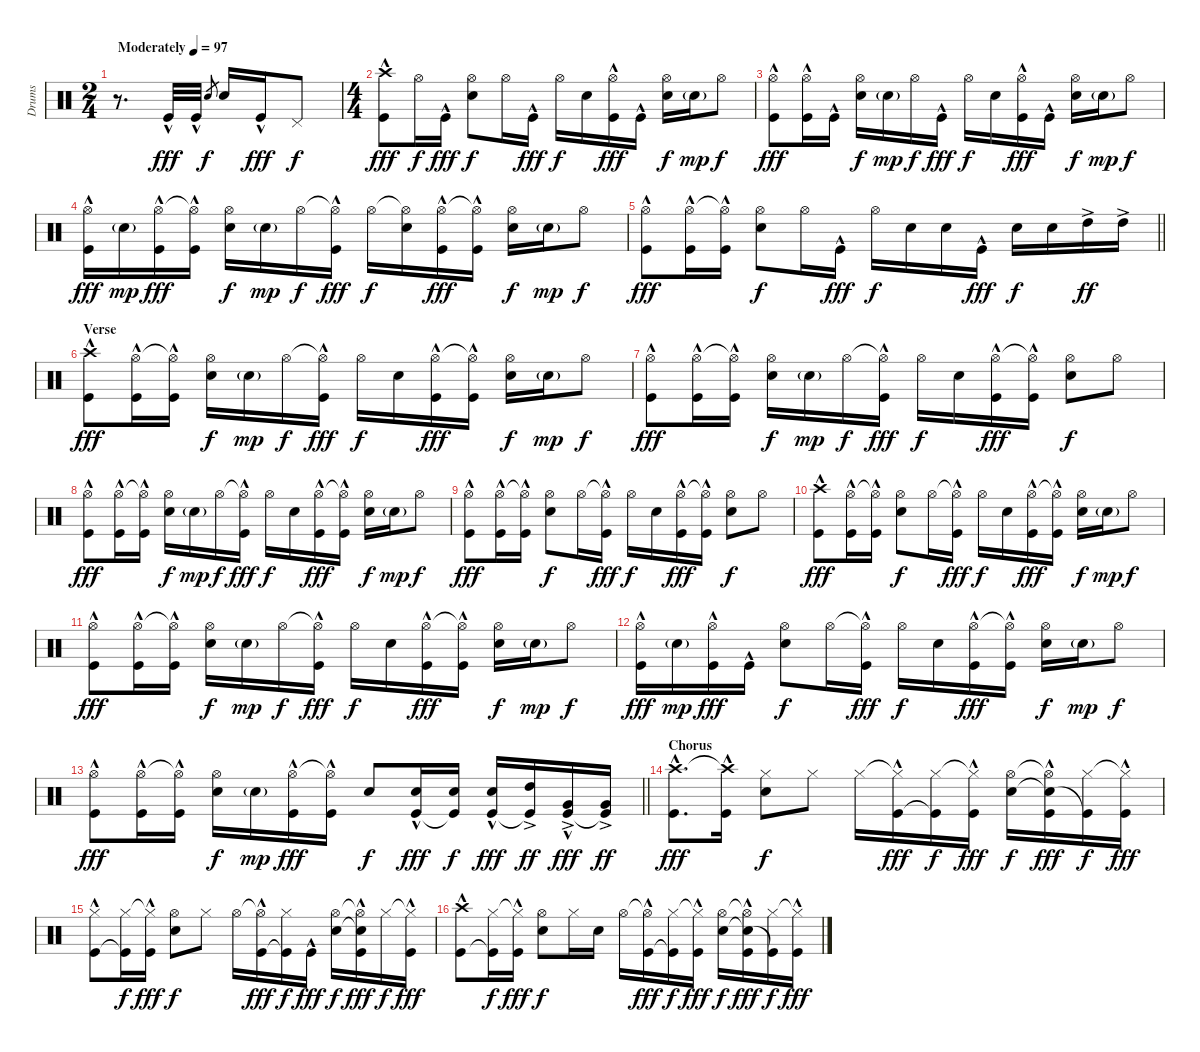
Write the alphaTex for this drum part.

\track ("Drums" "Drums") {instrument percussion}
\staff {score}
\articulation defaults
\ts (2 4)
\tempo (97 "Moderately")
\clef neutral
\ks c
r.8{d dy fff} "Kick (hit)"{hac}.32 "Kick (hit)"{hac}.32 "Snare (hit) 2".8{gr dy f} "Snare (hit) 2".16 "Kick (hit)"{hac}.16{dy fff} "Pedal Hi-Hat (hit)".8{dy f} |
\ts (4 4)
("Crash high (hit)" "Kick (hit)"{hac}).8{dy fff} "Hi-Hat (open)".16{dy f} "Kick (hit)"{hac}.16{dy fff} ("Hi-Hat (open)" "Snare (hit) 2").8{dy f} "Hi-Hat (open)".16 "Kick (hit)"{hac}.16{dy fff} "Hi-Hat (open)".16{dy f} "Snare (hit) 2".16 ("Hi-Hat (open)" "Kick (hit)"{hac}).16{dy fff} "Kick (hit)"{hac}.16 ("Hi-Hat (open)" "Snare (hit) 2").16{dy f} "Snare (hit) 2"{g}.16{dy mp} "Hi-Hat (open)".8{dy f} |
("Hi-Hat (open)" "Kick (hit)"{hac}).8{dy fff} ("Hi-Hat (open)" "Kick (hit)"{hac}).16 "Kick (hit)"{hac}.16 ("Hi-Hat (open)" "Snare (hit) 2").16{dy f} "Snare (hit) 2"{g}.16{dy mp} "Hi-Hat (open)".16{dy f} "Kick (hit)"{hac}.16{dy fff} "Hi-Hat (open)".16{dy f} "Snare (hit) 2".16 ("Hi-Hat (open)" "Kick (hit)"{hac}).16{dy fff} "Kick (hit)"{hac}.16 ("Hi-Hat (open)" "Snare (hit) 2").16{dy f} "Snare (hit) 2"{g}.16{dy mp} "Hi-Hat (open)".8{dy f} |
("Hi-Hat (open)" "Kick (hit)"{hac}).16{dy fff} "Snare (hit) 2"{g}.16{dy mp} ("Hi-Hat (open)" "Kick (hit)"{hac}).16{dy fff} ("Hi-Hat (open)"{t} "Kick (hit)"{hac}).16 ("Hi-Hat (open)" "Snare (hit) 2").16{dy f} "Snare (hit) 2"{g}.16{dy mp} "Hi-Hat (open)".16{dy f} ("Hi-Hat (open)"{t} "Kick (hit)"{hac}).16{dy fff} "Hi-Hat (open)".16{dy f} ("Hi-Hat (open)"{t} "Snare (hit) 2").16 ("Hi-Hat (open)" "Kick (hit)"{hac}).16{dy fff} ("Hi-Hat (open)"{t} "Kick (hit)"{hac}).16 ("Hi-Hat (open)" "Snare (hit) 2").16{dy f} "Snare (hit) 2"{g}.16{dy mp} "Hi-Hat (open)".8{dy f} |
\barLineRight lightlight
("Hi-Hat (open)" "Kick (hit)"{hac}).8{dy fff} ("Hi-Hat (open)" "Kick (hit)"{hac}).16 ("Hi-Hat (open)"{t} "Kick (hit)"{hac}).16 ("Hi-Hat (open)" "Snare (hit) 2").8{dy f} "Hi-Hat (open)".16 "Kick (hit)"{hac}.16{dy fff} "Hi-Hat (open)".16{dy f} "Snare (hit) 2".16 "Snare (hit) 2".16 "Kick (hit)"{hac}.16{dy fff} "Snare (hit) 2".16{dy f} "Snare (hit) 2".16 "High Tom (hit)"{ac}.16{dy ff} "High Tom (hit)"{ac}.16 |
\section ("" "Verse")
("Crash high (hit)" "Kick (hit)"{hac}).8{dy fff} ("Hi-Hat (open)" "Kick (hit)"{hac}).16 ("Hi-Hat (open)"{t} "Kick (hit)"{hac}).16 ("Hi-Hat (open)" "Snare (hit) 2").16{dy f} "Snare (hit) 2"{g}.16{dy mp} "Hi-Hat (open)".16{dy f} ("Hi-Hat (open)"{t} "Kick (hit)"{hac}).16{dy fff} "Hi-Hat (open)".16{dy f} "Snare (hit) 2".16 ("Hi-Hat (open)" "Kick (hit)"{hac}).16{dy fff} ("Hi-Hat (open)"{t} "Kick (hit)"{hac}).16 ("Hi-Hat (open)" "Snare (hit) 2").16{dy f} "Snare (hit) 2"{g}.16{dy mp} "Hi-Hat (open)".8{dy f} |
("Hi-Hat (open)" "Kick (hit)"{hac}).8{dy fff} ("Hi-Hat (open)" "Kick (hit)"{hac}).16 ("Hi-Hat (open)"{t} "Kick (hit)"{hac}).16 ("Hi-Hat (open)" "Snare (hit) 2").16{dy f} "Snare (hit) 2"{g}.16{dy mp} "Hi-Hat (open)".16{dy f} ("Hi-Hat (open)"{t} "Kick (hit)"{hac}).16{dy fff} "Hi-Hat (open)".16{dy f} "Snare (hit) 2".16 ("Hi-Hat (open)" "Kick (hit)"{hac}).16{dy fff} ("Hi-Hat (open)"{t} "Kick (hit)"{hac}).16 ("Hi-Hat (open)" "Snare (hit) 2").8{dy f} "Hi-Hat (open)".8 |
("Hi-Hat (open)" "Kick (hit)"{hac}).8{dy fff} ("Hi-Hat (open)" "Kick (hit)"{hac}).16 ("Hi-Hat (open)"{t} "Kick (hit)"{hac}).16 ("Hi-Hat (open)" "Snare (hit) 2").16{dy f} "Snare (hit) 2"{g}.16{dy mp} "Hi-Hat (open)".16{dy f} ("Hi-Hat (open)"{t} "Kick (hit)"{hac}).16{dy fff} "Hi-Hat (open)".16{dy f} "Snare (hit) 2".16 ("Hi-Hat (open)" "Kick (hit)"{hac}).16{dy fff} ("Hi-Hat (open)"{t} "Kick (hit)"{hac}).16 ("Hi-Hat (open)" "Snare (hit) 2").16{dy f} "Snare (hit) 2"{g}.16{dy mp} "Hi-Hat (open)".8{dy f} |
("Hi-Hat (open)" "Kick (hit)"{hac}).8{dy fff} ("Hi-Hat (open)" "Kick (hit)"{hac}).16 ("Hi-Hat (open)"{t} "Kick (hit)"{hac}).16 ("Hi-Hat (open)" "Snare (hit) 2").8{dy f} "Hi-Hat (open)".16 ("Hi-Hat (open)"{t} "Kick (hit)"{hac}).16{dy fff} "Hi-Hat (open)".16{dy f} "Snare (hit) 2".16 ("Hi-Hat (open)" "Kick (hit)"{hac}).16{dy fff} ("Hi-Hat (open)"{t} "Kick (hit)"{hac}).16 ("Hi-Hat (open)" "Snare (hit) 2").8{dy f} "Hi-Hat (open)".8 |
("Crash high (hit)" "Kick (hit)"{hac}).8{dy fff} ("Hi-Hat (open)" "Kick (hit)"{hac}).16 ("Hi-Hat (open)"{t} "Kick (hit)"{hac}).16 ("Hi-Hat (open)" "Snare (hit) 2").8{dy f} "Hi-Hat (open)".16 ("Hi-Hat (open)"{t} "Kick (hit)"{hac}).16{dy fff} "Hi-Hat (open)".16{dy f} "Snare (hit) 2".16 ("Hi-Hat (open)" "Kick (hit)"{hac}).16{dy fff} ("Hi-Hat (open)"{t} "Kick (hit)"{hac}).16 ("Hi-Hat (open)" "Snare (hit) 2").16{dy f} "Snare (hit) 2"{g}.16{dy mp} "Hi-Hat (open)".8{dy f} |
("Hi-Hat (open)" "Kick (hit)"{hac}).8{dy fff} ("Hi-Hat (open)" "Kick (hit)"{hac}).16 ("Hi-Hat (open)"{t} "Kick (hit)"{hac}).16 ("Hi-Hat (open)" "Snare (hit) 2").16{dy f} "Snare (hit) 2"{g}.16{dy mp} "Hi-Hat (open)".16{dy f} ("Hi-Hat (open)"{t} "Kick (hit)"{hac}).16{dy fff} "Hi-Hat (open)".16{dy f} "Snare (hit) 2".16 ("Hi-Hat (open)" "Kick (hit)"{hac}).16{dy fff} ("Hi-Hat (open)"{t} "Kick (hit)"{hac}).16 ("Hi-Hat (open)" "Snare (hit) 2").16{dy f} "Snare (hit) 2"{g}.16{dy mp} "Hi-Hat (open)".8{dy f} |
("Hi-Hat (open)" "Kick (hit)"{hac}).16{dy fff} "Snare (hit) 2"{g}.16{dy mp} ("Hi-Hat (open)" "Kick (hit)"{hac}).16{dy fff} "Kick (hit)"{hac}.16 ("Hi-Hat (open)" "Snare (hit) 2").8{dy f} "Hi-Hat (open)".16 ("Hi-Hat (open)"{t} "Kick (hit)"{hac}).16{dy fff} "Hi-Hat (open)".16{dy f} "Snare (hit) 2".16 ("Hi-Hat (open)" "Kick (hit)"{hac}).16{dy fff} ("Hi-Hat (open)"{t} "Kick (hit)"{hac}).16 ("Hi-Hat (open)" "Snare (hit) 2").16{dy f} "Snare (hit) 2"{g}.16{dy mp} "Hi-Hat (open)".8{dy f} |
\barLineRight lightlight
("Hi-Hat (open)" "Kick (hit)"{hac}).8{dy fff} ("Hi-Hat (open)" "Kick (hit)"{hac}).16 ("Hi-Hat (open)"{t} "Kick (hit)"{hac}).16 ("Hi-Hat (open)" "Snare (hit) 2").16{dy f} "Snare (hit) 2"{g}.16{dy mp} ("Hi-Hat (open)" "Kick (hit)"{hac}).16{dy fff} ("Hi-Hat (open)"{t} "Kick (hit)"{hac}).16 "Snare (hit) 2".8{dy f} ("Snare (hit) 2" "Kick (hit)"{hac}).16{dy fff} ("Snare (hit) 2" "Kick (hit)"{t}).16{dy f} ("Snare (hit) 2" "Kick (hit)"{hac}).16{dy fff} ("High Tom (hit)"{ac} "Kick (hit)"{t}).16{dy ff} ("Very Low Tom (hit)"{ac} "Kick (hit)"{hac}).16{dy fff} ("Very Low Tom (hit)"{ac} "Kick (hit)"{t}).16{dy ff} |
\section ("" "Chorus")
("Crash high (hit)" "Kick (hit)"{hac}).8{d dy fff} ("Crash high (hit)"{t} "Kick (hit)"{hac}).16 ("Hi-Hat (closed)" "Snare (hit) 2").8{dy f} "Hi-Hat (closed)".8 "Hi-Hat (closed)".16 ("Hi-Hat (closed)"{t} "Kick (hit)"{hac}).16{dy fff} ("Hi-Hat (closed)" "Kick (hit)"{t}).16{dy f} ("Hi-Hat (closed)"{t} "Kick (hit)"{hac}).16{dy fff} ("Hi-Hat (open)" "Snare (hit) 2").16{dy f} ("Hi-Hat (open)"{t} "Snare (hit) 2"{t} "Kick (hit)"{hac}).16{dy fff} ("Hi-Hat (closed)" "Kick (hit)"{t}).16{dy f} ("Hi-Hat (closed)"{t} "Kick (hit)"{hac}).16{dy fff} |
("Hi-Hat (closed)" "Kick (hit)"{hac}).8 ("Hi-Hat (closed)" "Kick (hit)"{t}).16{dy f} ("Hi-Hat (closed)"{t} "Kick (hit)"{hac}).16{dy fff} ("Hi-Hat (open)" "Snare (hit) 2").8{dy f} "Hi-Hat (closed)".8 "Hi-Hat (open)".16 ("Hi-Hat (open)"{t} "Kick (hit)"{hac}).16{dy fff} ("Hi-Hat (closed)" "Kick (hit)"{t}).16{dy f} "Kick (hit)"{hac}.16{dy fff} ("Hi-Hat (open)" "Snare (hit) 2").16{dy f} ("Hi-Hat (open)"{t} "Snare (hit) 2"{t} "Kick (hit)"{hac}).16{dy fff} "Hi-Hat (closed)".16{dy f} ("Hi-Hat (closed)"{t} "Kick (hit)"{hac}).16{dy fff} |
("Crash high (hit)" "Kick (hit)"{hac}).8 ("Hi-Hat (closed)" "Kick (hit)"{t}).16{dy f} ("Hi-Hat (closed)"{t} "Kick (hit)"{hac}).16{dy fff} ("Hi-Hat (open)" "Snare (hit) 2").8{dy f} "Hi-Hat (closed)".16 "Snare (hit) 2".16 "Hi-Hat (open)".16 ("Hi-Hat (open)"{t} "Kick (hit)"{hac}).16{dy fff} ("Hi-Hat (closed)" "Kick (hit)"{t}).16{dy f} ("Hi-Hat (closed)"{t} "Kick (hit)"{hac}).16{dy fff} ("Hi-Hat (open)" "Snare (hit) 2").16{dy f} ("Hi-Hat (open)"{t} "Snare (hit) 2"{t} "Kick (hit)"{hac}).16{dy fff} ("Hi-Hat (closed)" "Kick (hit)"{t}).16{dy f} ("Hi-Hat (closed)"{t} "Kick (hit)"{hac}).16{dy fff}
